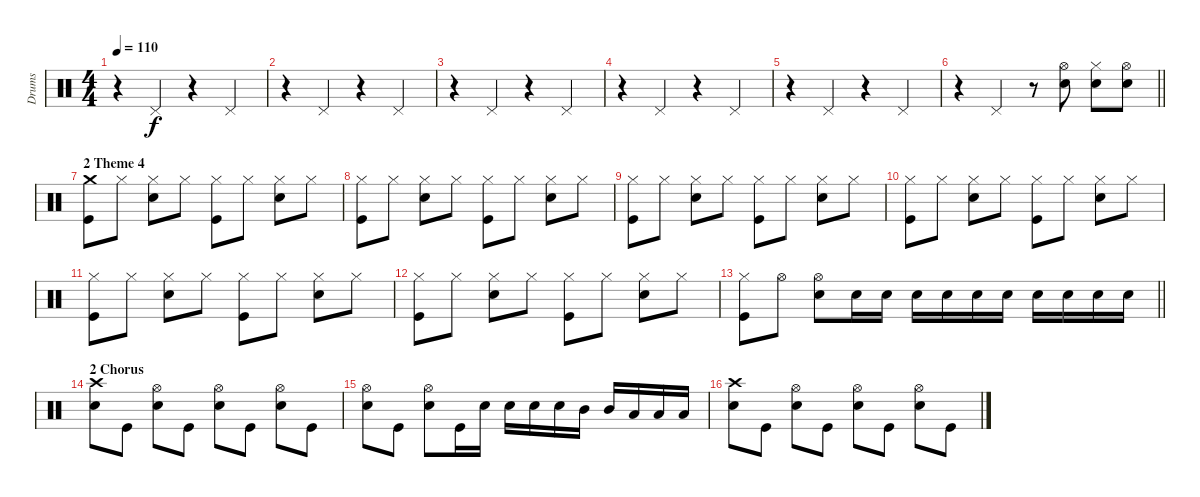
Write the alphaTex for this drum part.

\track ("Drums" "Drums") {instrument percussion}
\staff {score}
\articulation defaults
\ts (4 4)
\tempo 110
\clef neutral
\ks c
r.4{dy f} "Pedal Hi-Hat (hit)".4 r.4 "Pedal Hi-Hat (hit)".4 |
r.4 "Pedal Hi-Hat (hit)".4 r.4 "Pedal Hi-Hat (hit)".4 |
r.4 "Pedal Hi-Hat (hit)".4 r.4 "Pedal Hi-Hat (hit)".4 |
r.4 "Pedal Hi-Hat (hit)".4 r.4 "Pedal Hi-Hat (hit)".4 |
r.4 "Pedal Hi-Hat (hit)".4 r.4 "Pedal Hi-Hat (hit)".4 |
\barLineRight lightlight
r.4 "Pedal Hi-Hat (hit)".4 r.8 ("Hi-Hat (open)" "Electric Snare (hit)").8 ("Hi-Hat (closed)" "Electric Snare (hit)").8 ("Hi-Hat (open)" "Electric Snare (hit)").8 |
\section ("" "2 Theme 4")
("Kick (hit)" "Crash medium (hit)").8 "Hi-Hat (closed)".8 ("Hi-Hat (closed)" "Electric Snare (hit)").8 "Hi-Hat (closed)".8 ("Kick (hit)" "Hi-Hat (closed)").8 "Hi-Hat (closed)".8 ("Hi-Hat (closed)" "Electric Snare (hit)").8 "Hi-Hat (closed)".8 |
("Kick (hit)" "Hi-Hat (closed)").8 "Hi-Hat (closed)".8 ("Hi-Hat (closed)" "Electric Snare (hit)").8 "Hi-Hat (closed)".8 ("Kick (hit)" "Hi-Hat (closed)").8 "Hi-Hat (closed)".8 ("Hi-Hat (closed)" "Electric Snare (hit)").8 "Hi-Hat (closed)".8 |
("Kick (hit)" "Hi-Hat (closed)").8 "Hi-Hat (closed)".8 ("Hi-Hat (closed)" "Electric Snare (hit)").8 "Hi-Hat (closed)".8 ("Kick (hit)" "Hi-Hat (closed)").8 "Hi-Hat (closed)".8 ("Hi-Hat (closed)" "Electric Snare (hit)").8 "Hi-Hat (closed)".8 |
("Kick (hit)" "Hi-Hat (closed)").8 "Hi-Hat (closed)".8 ("Hi-Hat (closed)" "Electric Snare (hit)").8 "Hi-Hat (closed)".8 ("Kick (hit)" "Hi-Hat (closed)").8 "Hi-Hat (closed)".8 ("Hi-Hat (closed)" "Electric Snare (hit)").8 "Hi-Hat (closed)".8 |
("Kick (hit)" "Hi-Hat (closed)").8 "Hi-Hat (closed)".8 ("Hi-Hat (closed)" "Electric Snare (hit)").8 "Hi-Hat (closed)".8 ("Kick (hit)" "Hi-Hat (closed)").8 "Hi-Hat (closed)".8 ("Hi-Hat (closed)" "Electric Snare (hit)").8 "Hi-Hat (closed)".8 |
("Kick (hit)" "Hi-Hat (closed)").8 "Hi-Hat (closed)".8 ("Hi-Hat (closed)" "Electric Snare (hit)").8 "Hi-Hat (closed)".8 ("Kick (hit)" "Hi-Hat (closed)").8 "Hi-Hat (closed)".8 ("Hi-Hat (closed)" "Electric Snare (hit)").8 "Hi-Hat (closed)".8 |
\barLineRight lightlight
("Kick (hit)" "Hi-Hat (closed)").8 "Hi-Hat (open)".8 ("Hi-Hat (open)" "Electric Snare (hit)").8 "Electric Snare (hit)".16 "Electric Snare (hit)".16 "Electric Snare (hit)".16 "Electric Snare (hit)".16 "Electric Snare (hit)".16 "Electric Snare (hit)".16 "Electric Snare (hit)".16 "Electric Snare (hit)".16 "Electric Snare (hit)".16 "Electric Snare (hit)".16 |
\section ("" "2 Chorus")
("Electric Snare (hit)" "Crash high (hit)").8 "Kick (hit)".8 ("Hi-Hat (open)" "Electric Snare (hit)").8 "Kick (hit)".8 ("Hi-Hat (open)" "Electric Snare (hit)").8 "Kick (hit)".8 ("Hi-Hat (open)" "Electric Snare (hit)").8 "Kick (hit)".8 |
("Hi-Hat (open)" "Electric Snare (hit)").8 "Kick (hit)".8 ("Hi-Hat (open)" "Electric Snare (hit)").8 "Kick (hit)".16 "Electric Snare (hit)".16 "Electric Snare (hit)".16 "Electric Snare (hit)".16 "Electric Snare (hit)".16 "Mid Tom (hit)".16 "Mid Tom (hit)".16 "Low Tom (hit)".16 "Low Tom (hit)".16 "Low Tom (hit)".16 |
("Electric Snare (hit)" "Crash high (hit)").8 "Kick (hit)".8 ("Hi-Hat (open)" "Electric Snare (hit)").8 "Kick (hit)".8 ("Hi-Hat (open)" "Electric Snare (hit)").8 "Kick (hit)".8 ("Hi-Hat (open)" "Electric Snare (hit)").8 "Kick (hit)".8
